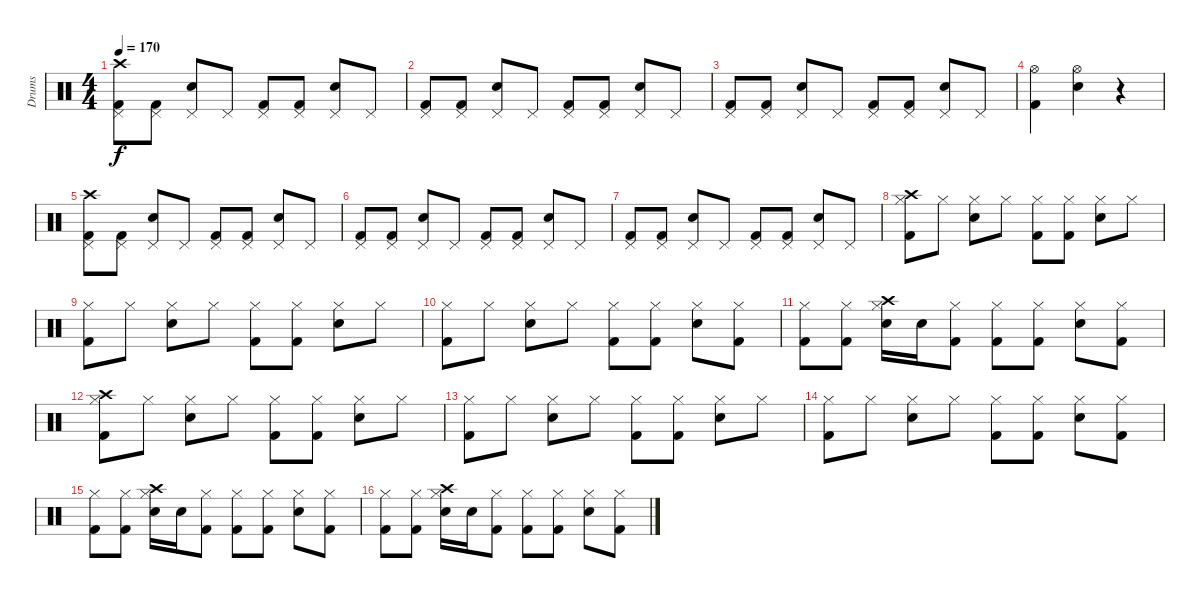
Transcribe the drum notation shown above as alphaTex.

\track ("Drums" "Drums") {instrument percussion}
\staff {score}
\articulation defaults
\ts (4 4)
\tempo 170
\clef neutral
\ks c
("Crash high (hit)" "Pedal Hi-Hat (hit)" "Kick (hit) 2").8{dy f} ("Pedal Hi-Hat (hit)" "Kick (hit) 2").8 ("Pedal Hi-Hat (hit)" "Electric Snare (hit)").8 "Pedal Hi-Hat (hit)".8 ("Pedal Hi-Hat (hit)" "Kick (hit) 2").8 ("Pedal Hi-Hat (hit)" "Kick (hit) 2").8 ("Pedal Hi-Hat (hit)" "Electric Snare (hit)").8 "Pedal Hi-Hat (hit)".8 |
("Pedal Hi-Hat (hit)" "Kick (hit) 2").8 ("Pedal Hi-Hat (hit)" "Kick (hit) 2").8 ("Pedal Hi-Hat (hit)" "Electric Snare (hit)").8 "Pedal Hi-Hat (hit)".8 ("Pedal Hi-Hat (hit)" "Kick (hit) 2").8 ("Pedal Hi-Hat (hit)" "Kick (hit) 2").8 ("Pedal Hi-Hat (hit)" "Electric Snare (hit)").8 "Pedal Hi-Hat (hit)".8 |
("Pedal Hi-Hat (hit)" "Kick (hit) 2").8 ("Pedal Hi-Hat (hit)" "Kick (hit) 2").8 ("Pedal Hi-Hat (hit)" "Electric Snare (hit)").8 "Pedal Hi-Hat (hit)".8 ("Pedal Hi-Hat (hit)" "Kick (hit) 2").8 ("Pedal Hi-Hat (hit)" "Kick (hit) 2").8 ("Pedal Hi-Hat (hit)" "Electric Snare (hit)").8 "Pedal Hi-Hat (hit)".8 |
("Hi-Hat (open)" "Kick (hit) 2").4 ("Hi-Hat (open)" "Electric Snare (hit)").4 r.4 |
("Crash high (hit)" "Pedal Hi-Hat (hit)" "Kick (hit) 2").8 ("Pedal Hi-Hat (hit)" "Kick (hit) 2").8 ("Pedal Hi-Hat (hit)" "Electric Snare (hit)").8 "Pedal Hi-Hat (hit)".8 ("Pedal Hi-Hat (hit)" "Kick (hit) 2").8 ("Pedal Hi-Hat (hit)" "Kick (hit) 2").8 ("Pedal Hi-Hat (hit)" "Electric Snare (hit)").8 "Pedal Hi-Hat (hit)".8 |
("Pedal Hi-Hat (hit)" "Kick (hit) 2").8 ("Pedal Hi-Hat (hit)" "Kick (hit) 2").8 ("Pedal Hi-Hat (hit)" "Electric Snare (hit)").8 "Pedal Hi-Hat (hit)".8 ("Pedal Hi-Hat (hit)" "Kick (hit) 2").8 ("Pedal Hi-Hat (hit)" "Kick (hit) 2").8 ("Pedal Hi-Hat (hit)" "Electric Snare (hit)").8 "Pedal Hi-Hat (hit)".8 |
("Pedal Hi-Hat (hit)" "Kick (hit) 2").8 ("Pedal Hi-Hat (hit)" "Kick (hit) 2").8 ("Pedal Hi-Hat (hit)" "Electric Snare (hit)").8 "Pedal Hi-Hat (hit)".8 ("Pedal Hi-Hat (hit)" "Kick (hit) 2").8 ("Pedal Hi-Hat (hit)" "Kick (hit) 2").8 ("Pedal Hi-Hat (hit)" "Electric Snare (hit)").8 "Pedal Hi-Hat (hit)".8 |
("Crash high (hit)" "Hi-Hat (closed)" "Kick (hit) 2").8 "Hi-Hat (closed)".8 ("Hi-Hat (closed)" "Electric Snare (hit)").8 "Hi-Hat (closed)".8 ("Hi-Hat (closed)" "Kick (hit) 2").8 ("Hi-Hat (closed)" "Kick (hit) 2").8 ("Hi-Hat (closed)" "Electric Snare (hit)").8 "Hi-Hat (closed)".8 |
("Hi-Hat (closed)" "Kick (hit) 2").8 "Hi-Hat (closed)".8 ("Hi-Hat (closed)" "Electric Snare (hit)").8 "Hi-Hat (closed)".8 ("Hi-Hat (closed)" "Kick (hit) 2").8 ("Hi-Hat (closed)" "Kick (hit) 2").8 ("Hi-Hat (closed)" "Electric Snare (hit)").8 "Hi-Hat (closed)".8 |
("Hi-Hat (closed)" "Kick (hit) 2").8 "Hi-Hat (closed)".8 ("Hi-Hat (closed)" "Electric Snare (hit)").8 "Hi-Hat (closed)".8 ("Hi-Hat (closed)" "Kick (hit) 2").8 ("Hi-Hat (closed)" "Kick (hit) 2").8 ("Hi-Hat (closed)" "Electric Snare (hit)").8 ("Hi-Hat (closed)" "Kick (hit) 2").8 |
("Hi-Hat (closed)" "Kick (hit) 2").8 ("Hi-Hat (closed)" "Kick (hit) 2").8 ("Crash high (hit)" "Hi-Hat (closed)" "Electric Snare (hit)").16 "Electric Snare (hit)".16 ("Hi-Hat (closed)" "Kick (hit) 2").8 ("Hi-Hat (closed)" "Kick (hit) 2").8 ("Hi-Hat (closed)" "Kick (hit) 2").8 ("Hi-Hat (closed)" "Electric Snare (hit)").8 ("Hi-Hat (closed)" "Kick (hit) 2").8 |
("Crash high (hit)" "Hi-Hat (closed)" "Kick (hit) 2").8 "Hi-Hat (closed)".8 ("Hi-Hat (closed)" "Electric Snare (hit)").8 "Hi-Hat (closed)".8 ("Hi-Hat (closed)" "Kick (hit) 2").8 ("Hi-Hat (closed)" "Kick (hit) 2").8 ("Hi-Hat (closed)" "Electric Snare (hit)").8 "Hi-Hat (closed)".8 |
("Hi-Hat (closed)" "Kick (hit) 2").8 "Hi-Hat (closed)".8 ("Hi-Hat (closed)" "Electric Snare (hit)").8 "Hi-Hat (closed)".8 ("Hi-Hat (closed)" "Kick (hit) 2").8 ("Hi-Hat (closed)" "Kick (hit) 2").8 ("Hi-Hat (closed)" "Electric Snare (hit)").8 "Hi-Hat (closed)".8 |
("Hi-Hat (closed)" "Kick (hit) 2").8 "Hi-Hat (closed)".8 ("Hi-Hat (closed)" "Electric Snare (hit)").8 "Hi-Hat (closed)".8 ("Hi-Hat (closed)" "Kick (hit) 2").8 ("Hi-Hat (closed)" "Kick (hit) 2").8 ("Hi-Hat (closed)" "Electric Snare (hit)").8 ("Hi-Hat (closed)" "Kick (hit) 2").8 |
("Hi-Hat (closed)" "Kick (hit) 2").8 ("Hi-Hat (closed)" "Kick (hit) 2").8 ("Crash high (hit)" "Hi-Hat (closed)" "Electric Snare (hit)").16 "Electric Snare (hit)".16 ("Hi-Hat (closed)" "Kick (hit) 2").8 ("Hi-Hat (closed)" "Kick (hit) 2").8 ("Hi-Hat (closed)" "Kick (hit) 2").8 ("Hi-Hat (closed)" "Electric Snare (hit)").8 ("Hi-Hat (closed)" "Kick (hit) 2").8 |
("Hi-Hat (closed)" "Kick (hit) 2").8 ("Hi-Hat (closed)" "Kick (hit) 2").8 ("Crash high (hit)" "Hi-Hat (closed)" "Electric Snare (hit)").16 "Electric Snare (hit)".16 ("Hi-Hat (closed)" "Kick (hit) 2").8 ("Hi-Hat (closed)" "Kick (hit) 2").8 ("Hi-Hat (closed)" "Kick (hit) 2").8 ("Hi-Hat (closed)" "Electric Snare (hit)").8 ("Hi-Hat (closed)" "Kick (hit) 2").8
